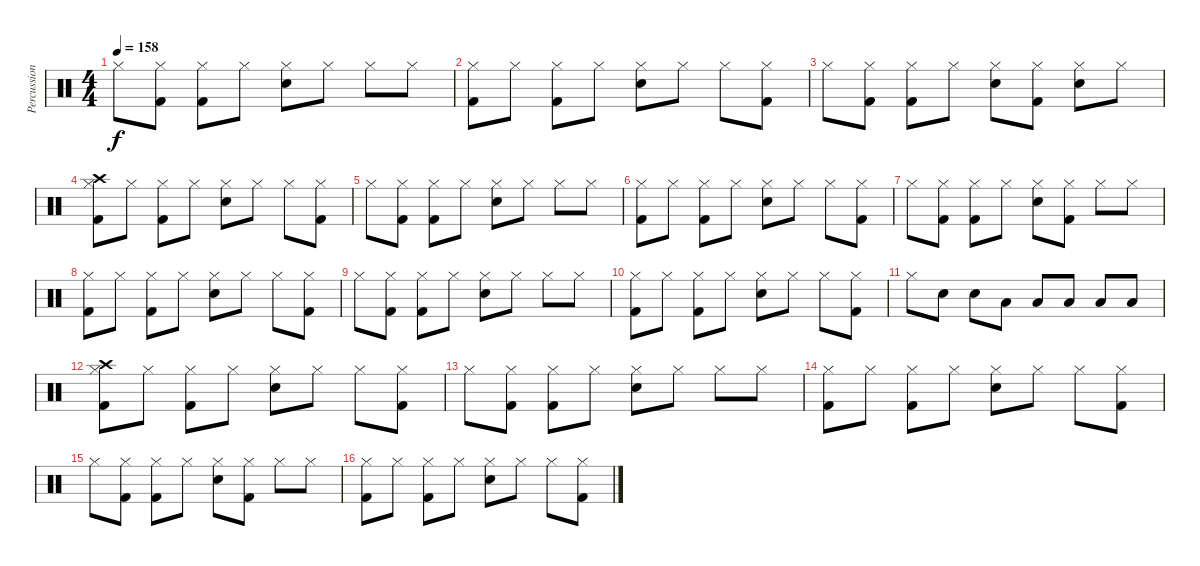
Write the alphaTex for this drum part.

\track ("Percussion" "Percussion") {instrument percussion}
\staff {score}
\articulation defaults
\ts (4 4)
\tempo 158
\clef neutral
\ks c "Hi-Hat (closed)".8{dy f}
("Hi-Hat (closed)" "Kick (hit) 2").8 ("Hi-Hat (closed)" "Kick (hit) 2").8 "Hi-Hat (closed)".8 ("Hi-Hat (closed)" "Electric Snare (hit)").8 "Hi-Hat (closed)".8 "Hi-Hat (closed)".8 "Hi-Hat (closed)".8 |
("Hi-Hat (closed)" "Kick (hit) 2").8 "Hi-Hat (closed)".8 ("Hi-Hat (closed)" "Kick (hit) 2").8 "Hi-Hat (closed)".8 ("Hi-Hat (closed)" "Snare (hit) 2").8 "Hi-Hat (closed)".8 "Hi-Hat (closed)".8 ("Hi-Hat (closed)" "Kick (hit) 2").8 |
"Hi-Hat (closed)".8 ("Hi-Hat (closed)" "Kick (hit) 2").8 ("Hi-Hat (closed)" "Kick (hit) 2").8 "Hi-Hat (closed)".8 ("Hi-Hat (closed)" "Electric Snare (hit)").8 ("Hi-Hat (closed)" "Kick (hit) 2").8 ("Hi-Hat (closed)" "Electric Snare (hit)").8 "Hi-Hat (closed)".8 |
("Hi-Hat (closed)" "Kick (hit) 2" "Crash high (hit)").8 "Hi-Hat (closed)".8 ("Hi-Hat (closed)" "Kick (hit) 2").8 "Hi-Hat (closed)".8 ("Hi-Hat (closed)" "Electric Snare (hit)").8 "Hi-Hat (closed)".8 "Hi-Hat (closed)".8 ("Hi-Hat (closed)" "Kick (hit) 2").8 |
"Hi-Hat (closed)".8 ("Hi-Hat (closed)" "Kick (hit) 2").8 ("Hi-Hat (closed)" "Kick (hit) 2").8 "Hi-Hat (closed)".8 ("Hi-Hat (closed)" "Electric Snare (hit)").8 "Hi-Hat (closed)".8 "Hi-Hat (closed)".8 "Hi-Hat (closed)".8 |
("Hi-Hat (closed)" "Kick (hit) 2").8 "Hi-Hat (closed)".8 ("Hi-Hat (closed)" "Kick (hit) 2").8 "Hi-Hat (closed)".8 ("Hi-Hat (closed)" "Electric Snare (hit)").8 "Hi-Hat (closed)".8 "Hi-Hat (closed)".8 ("Hi-Hat (closed)" "Kick (hit) 2").8 |
"Hi-Hat (closed)".8 ("Hi-Hat (closed)" "Kick (hit) 2").8 ("Hi-Hat (closed)" "Kick (hit) 2").8 "Hi-Hat (closed)".8 ("Hi-Hat (closed)" "Electric Snare (hit)").8 ("Hi-Hat (closed)" "Kick (hit) 2").8 "Hi-Hat (closed)".8 "Hi-Hat (closed)".8 |
("Hi-Hat (closed)" "Kick (hit) 2").8 "Hi-Hat (closed)".8 ("Hi-Hat (closed)" "Kick (hit) 2").8 "Hi-Hat (closed)".8 ("Hi-Hat (closed)" "Electric Snare (hit)").8 "Hi-Hat (closed)".8 "Hi-Hat (closed)".8 ("Hi-Hat (closed)" "Kick (hit) 2").8 |
"Hi-Hat (closed)".8 ("Hi-Hat (closed)" "Kick (hit) 2").8 ("Hi-Hat (closed)" "Kick (hit) 2").8 "Hi-Hat (closed)".8 ("Hi-Hat (closed)" "Electric Snare (hit)").8 "Hi-Hat (closed)".8 "Hi-Hat (closed)".8 "Hi-Hat (closed)".8 |
("Hi-Hat (closed)" "Kick (hit) 2").8 "Hi-Hat (closed)".8 ("Hi-Hat (closed)" "Kick (hit) 2").8 "Hi-Hat (closed)".8 ("Hi-Hat (closed)" "Snare (hit) 2").8 "Hi-Hat (closed)".8 "Hi-Hat (closed)".8 ("Hi-Hat (closed)" "Kick (hit) 2").8 |
"Hi-Hat (closed)".8 "Snare (hit) 2".8 "Snare (hit) 2".8 "Low Tom (hit)".8 "Low Tom (hit)".8 "Low Floor Tom (hit)".8 "Low Floor Tom (hit)".8 "Low Floor Tom (hit)".8 |
("Hi-Hat (closed)" "Kick (hit) 2" "Crash high (hit)").8 "Hi-Hat (closed)".8 ("Hi-Hat (closed)" "Kick (hit) 2").8 "Hi-Hat (closed)".8 ("Hi-Hat (closed)" "Electric Snare (hit)").8 "Hi-Hat (closed)".8 "Hi-Hat (closed)".8 ("Hi-Hat (closed)" "Kick (hit) 2").8 |
"Hi-Hat (closed)".8 ("Hi-Hat (closed)" "Kick (hit) 2").8 ("Hi-Hat (closed)" "Kick (hit) 2").8 "Hi-Hat (closed)".8 ("Hi-Hat (closed)" "Electric Snare (hit)").8 "Hi-Hat (closed)".8 "Hi-Hat (closed)".8 "Hi-Hat (closed)".8 |
("Hi-Hat (closed)" "Kick (hit) 2").8 "Hi-Hat (closed)".8 ("Hi-Hat (closed)" "Kick (hit) 2").8 "Hi-Hat (closed)".8 ("Hi-Hat (closed)" "Electric Snare (hit)").8 "Hi-Hat (closed)".8 "Hi-Hat (closed)".8 ("Hi-Hat (closed)" "Kick (hit) 2").8 |
"Hi-Hat (closed)".8 ("Hi-Hat (closed)" "Kick (hit) 2").8 ("Hi-Hat (closed)" "Kick (hit) 2").8 "Hi-Hat (closed)".8 ("Hi-Hat (closed)" "Electric Snare (hit)").8 ("Hi-Hat (closed)" "Kick (hit) 2").8 "Hi-Hat (closed)".8 "Hi-Hat (closed)".8 |
("Hi-Hat (closed)" "Kick (hit) 2").8 "Hi-Hat (closed)".8 ("Hi-Hat (closed)" "Kick (hit) 2").8 "Hi-Hat (closed)".8 ("Hi-Hat (closed)" "Electric Snare (hit)").8 "Hi-Hat (closed)".8 "Hi-Hat (closed)".8 ("Hi-Hat (closed)" "Kick (hit) 2").8
